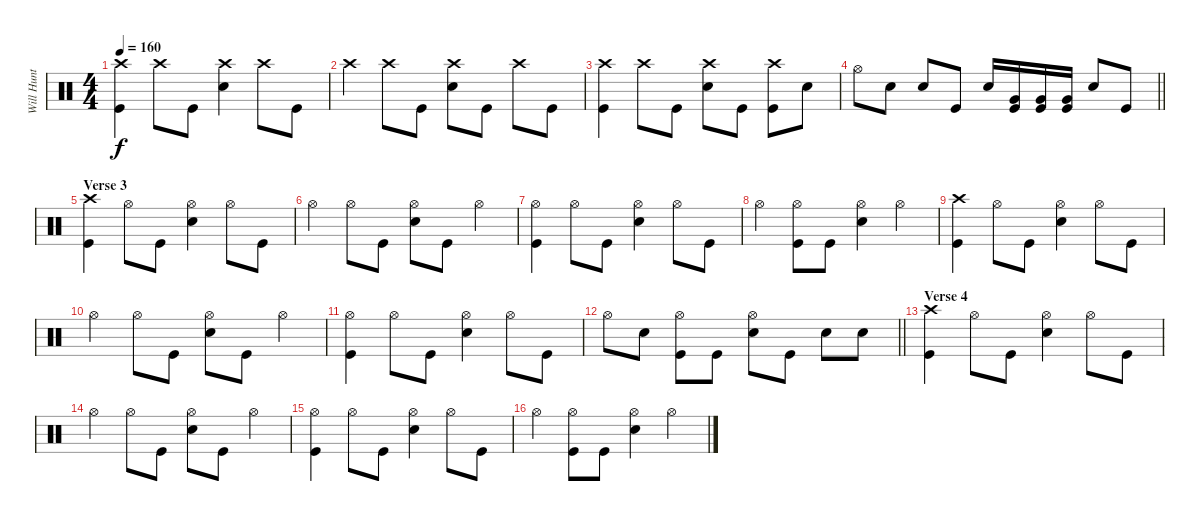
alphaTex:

\track ("Will Hunt" "Will Hunt") {instrument percussion}
\staff {score}
\articulation defaults
\ts (4 4)
\tempo 160
\clef neutral
\ks c
("Crash high (hit)" "Kick (hit)").4{dy f} "Crash high (hit)".8 "Kick (hit)".8 ("Crash high (hit)" "Snare (hit) 2").4 "Crash high (hit)".8 "Kick (hit)".8 |
"Crash high (hit)".4 "Crash high (hit)".8 "Kick (hit)".8 ("Crash high (hit)" "Snare (hit) 2").8 "Kick (hit)".8 "Crash high (hit)".8 "Kick (hit)".8 |
("Crash high (hit)" "Kick (hit)").4 "Crash high (hit)".8 "Kick (hit)".8 ("Crash high (hit)" "Snare (hit) 2").8 "Kick (hit)".8 ("Crash high (hit)" "Kick (hit)").8 "Snare (hit) 2".8 |
\barLineRight lightlight "Hi-Hat (open)".8 "Snare (hit) 2".8 "Snare (hit) 2".8 "Kick (hit)".8 "Snare (hit) 2".16
("Very Low Tom (hit)" "Kick (hit)").16 ("Very Low Tom (hit)" "Kick (hit)").16 ("Very Low Tom (hit)" "Kick (hit)").16 "Snare (hit) 2".8 "Kick (hit)".8 |
\section ("" "Verse 3")
("Crash high (hit)" "Kick (hit)").4 "Hi-Hat (open)".8 "Kick (hit)".8 ("Hi-Hat (open)" "Snare (hit) 2").4 "Hi-Hat (open)".8 "Kick (hit)".8 |
"Hi-Hat (open)".4 "Hi-Hat (open)".8 "Kick (hit)".8 ("Hi-Hat (open)" "Snare (hit) 2").8 "Kick (hit)".8 "Hi-Hat (open)".4 |
("Hi-Hat (open)" "Kick (hit)").4 "Hi-Hat (open)".8 "Kick (hit)".8 ("Hi-Hat (open)" "Snare (hit) 2").4 "Hi-Hat (open)".8 "Kick (hit)".8 |
"Hi-Hat (open)".4 ("Hi-Hat (open)" "Kick (hit)").8 "Kick (hit)".8 ("Hi-Hat (open)" "Snare (hit) 2").4 "Hi-Hat (open)".4 |
("Crash high (hit)" "Kick (hit)").4 "Hi-Hat (open)".8 "Kick (hit)".8 ("Hi-Hat (open)" "Snare (hit) 2").4 "Hi-Hat (open)".8 "Kick (hit)".8 |
"Hi-Hat (open)".4 "Hi-Hat (open)".8 "Kick (hit)".8 ("Hi-Hat (open)" "Snare (hit) 2").8 "Kick (hit)".8 "Hi-Hat (open)".4 |
("Hi-Hat (open)" "Kick (hit)").4 "Hi-Hat (open)".8 "Kick (hit)".8 ("Hi-Hat (open)" "Snare (hit) 2").4 "Hi-Hat (open)".8 "Kick (hit)".8 |
\barLineRight lightlight "Hi-Hat (open)".8 "Snare (hit) 2".8
("Hi-Hat (open)" "Kick (hit)").8 "Kick (hit)".8 ("Hi-Hat (open)" "Snare (hit) 2").8 "Kick (hit)".8 "Snare (hit) 2".8 "Snare (hit) 2".8 |
\section ("" "Verse 4")
("Crash high (hit)" "Kick (hit)").4 "Hi-Hat (open)".8 "Kick (hit)".8 ("Hi-Hat (open)" "Snare (hit) 2").4 "Hi-Hat (open)".8 "Kick (hit)".8 |
"Hi-Hat (open)".4 "Hi-Hat (open)".8 "Kick (hit)".8 ("Hi-Hat (open)" "Snare (hit) 2").8 "Kick (hit)".8 "Hi-Hat (open)".4 |
("Hi-Hat (open)" "Kick (hit)").4 "Hi-Hat (open)".8 "Kick (hit)".8 ("Hi-Hat (open)" "Snare (hit) 2").4 "Hi-Hat (open)".8 "Kick (hit)".8 |
"Hi-Hat (open)".4 ("Hi-Hat (open)" "Kick (hit)").8 "Kick (hit)".8 ("Hi-Hat (open)" "Snare (hit) 2").4 "Hi-Hat (open)".4
